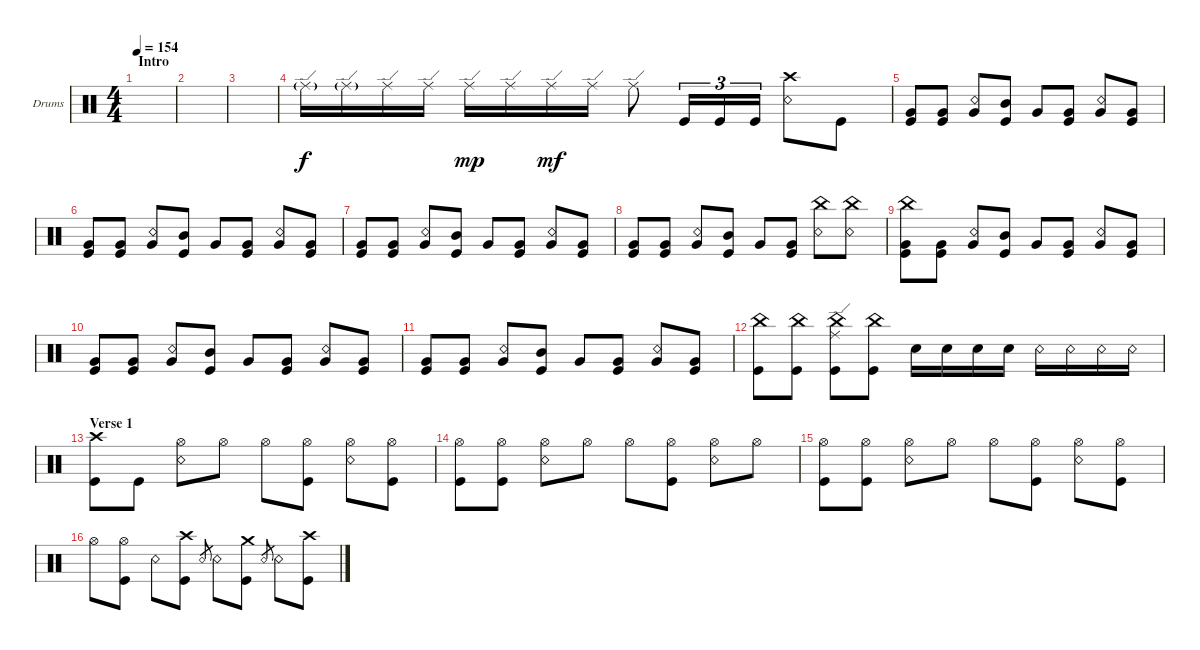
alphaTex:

\defaultSystemsLayout 4
\bracketExtendMode groupsimilarinstruments
\firstSystemTrackNameOrientation horizontal
\otherSystemsTrackNameOrientation horizontal
\track ("Drumkit" "Drums") {instrument percussion}
\staff {score}
\articulation defaults
\ts (4 4)
\section ("" "Intro")
\tempo 154
\clef neutral
\scale
0.474178
\ks c
|
\scale
0.262911 |
\scale
0.262911 |
\scale
0.333333 "Ride (edge)"{g}.16 "Ride (edge)"{g}.16 "Ride (edge)".16 "Ride (edge)".16 "Ride (edge)".16{dy mp} "Ride (edge)".16 "Ride (edge)".16{dy mf} "Ride (edge)".16 "Ride (edge)".8 "Kick (hit)".16{tu (3 2)} "Kick (hit)".16{tu (3 2)} "Kick (hit)".16{tu (3 2)} ("Snare (rim shot)" "Crash high (hit)").8 "Kick (hit)".8 |
\scale
0.333333 ("Kick (hit)" "Very Low Tom (hit)").8 ("Kick (hit)" "Very Low Tom (hit)").8 ("Snare (rim shot)" "Very Low Tom (hit)").8 ("Kick (hit)" "Mid Tom (hit)").8 "Very Low Tom (hit)".8 ("Kick (hit)" "Very Low Tom (hit)").8 ("Snare (rim shot)" "Very Low Tom (hit)").8 ("Kick (hit)" "Very Low Tom (hit)").8 |
\scale
0.333333 ("Kick (hit)" "Very Low Tom (hit)").8 ("Kick (hit)" "Very Low Tom (hit)").8 ("Snare (rim shot)" "Very Low Tom (hit)").8 ("Kick (hit)" "Mid Tom (hit)").8 "Very Low Tom (hit)".8 ("Kick (hit)" "Very Low Tom (hit)").8 ("Snare (rim shot)" "Very Low Tom (hit)").8 ("Kick (hit)" "Very Low Tom (hit)").8 |
\scale
0.333333 ("Kick (hit)" "Very Low Tom (hit)").8 ("Kick (hit)" "Very Low Tom (hit)").8 ("Snare (rim shot)" "Very Low Tom (hit)").8 ("Kick (hit)" "Mid Tom (hit)").8 "Very Low Tom (hit)".8 ("Kick (hit)" "Very Low Tom (hit)").8 ("Snare (rim shot)" "Very Low Tom (hit)").8 ("Kick (hit)" "Very Low Tom (hit)").8 |
\scale
0.333333 ("Kick (hit)" "Very Low Tom (hit)").8 ("Kick (hit)" "Very Low Tom (hit)").8 ("Snare (rim shot)" "Very Low Tom (hit)").8 ("Kick (hit)" "Mid Tom (hit)").8 "Very Low Tom (hit)".8 ("Kick (hit)" "Very Low Tom (hit)").8 ("Snare (rim shot)" "China (hit)").8 ("Snare (rim shot)" "China (hit)").8 |
\scale
0.333333 ("Kick (hit)" "Very Low Tom (hit)" "China (hit)").8 ("Kick (hit)" "Very Low Tom (hit)").8 ("Snare (rim shot)" "Very Low Tom (hit)").8 ("Kick (hit)" "Mid Tom (hit)").8 "Very Low Tom (hit)".8 ("Kick (hit)" "Very Low Tom (hit)").8 ("Snare (rim shot)" "Very Low Tom (hit)").8 ("Kick (hit)" "Very Low Tom (hit)").8 |
("Kick (hit)" "Very Low Tom (hit)").8 ("Kick (hit)" "Very Low Tom (hit)").8 ("Snare (rim shot)" "Very Low Tom (hit)").8 ("Kick (hit)" "Mid Tom (hit)").8 "Very Low Tom (hit)".8 ("Kick (hit)" "Very Low Tom (hit)").8 ("Snare (rim shot)" "Very Low Tom (hit)").8 ("Kick (hit)" "Very Low Tom (hit)").8 |
("Kick (hit)" "Very Low Tom (hit)").8 ("Kick (hit)" "Very Low Tom (hit)").8 ("Snare (rim shot)" "Very Low Tom (hit)").8 ("Kick (hit)" "Mid Tom (hit)").8 "Very Low Tom (hit)".8 ("Kick (hit)" "Very Low Tom (hit)").8 ("Snare (rim shot)" "Very Low Tom (hit)").8 ("Kick (hit)" "Very Low Tom (hit)").8 |
("China (hit)" "Kick (hit)").8 ("China (hit)" "Kick (hit)").8 ("China (hit)" "Ride (edge)" "Kick (hit)").8 ("China (hit)" "Kick (hit)").8 "Snare (hit) 2".16 "Snare (hit) 2".16 "Snare (hit) 2".16 "Snare (hit) 2".16 "Snare (rim shot)".16 "Snare (rim shot)".16 "Snare (rim shot)".16 "Snare (rim shot)".16 |
\section ("" "Verse 1")
("Kick (hit)" "Crash high (hit)").8 "Kick (hit)".8 ("Hi-Hat (open)" "Snare (rim shot)").8 "Hi-Hat (open)".8 "Hi-Hat (open)".8 ("Hi-Hat (open)" "Kick (hit)").8 ("Hi-Hat (open)" "Snare (rim shot)").8 ("Hi-Hat (open)" "Kick (hit)").8 |
("Hi-Hat (open)" "Kick (hit)").8 ("Hi-Hat (open)" "Kick (hit)").8 ("Hi-Hat (open)" "Snare (rim shot)").8 "Hi-Hat (open)".8 "Hi-Hat (open)".8 ("Hi-Hat (open)" "Kick (hit)").8 ("Hi-Hat (open)" "Snare (rim shot)").8 "Hi-Hat (open)".8 |
("Hi-Hat (open)" "Kick (hit)").8 ("Hi-Hat (open)" "Kick (hit)").8 ("Hi-Hat (open)" "Snare (rim shot)").8 "Hi-Hat (open)".8 "Hi-Hat (open)".8 ("Hi-Hat (open)" "Kick (hit)").8 ("Hi-Hat (open)" "Snare (rim shot)").8 ("Hi-Hat (open)" "Kick (hit)").8 |
"Hi-Hat (open)".8 ("Kick (hit)" "Hi-Hat (open)").8 "Snare (rim shot)".8 ("Kick (hit)" "Crash high (hit)").8 "Snare (rim shot)".8{gr} "Snare (rim shot)".8 ("Kick (hit)" "Crash medium (hit)").8 "Snare (rim shot)".8{gr} "Snare (rim shot)".8 ("Kick (hit)" "Crash high (hit)").8
